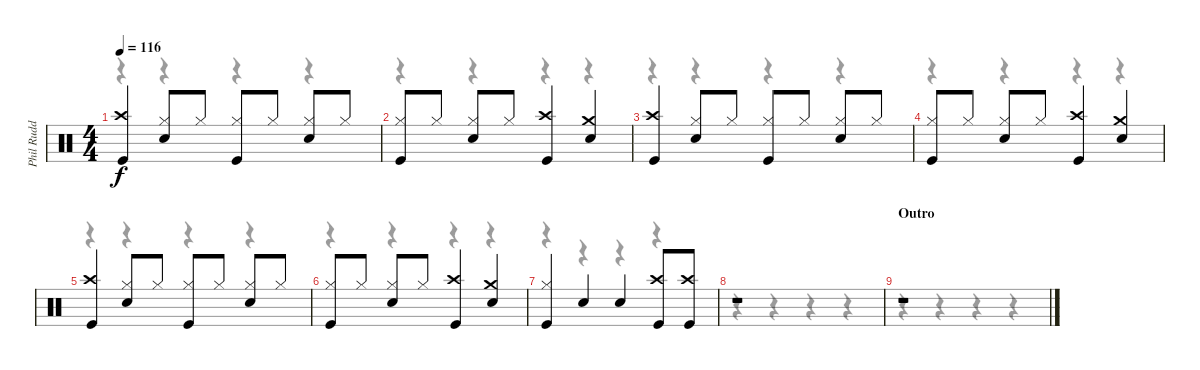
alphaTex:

\track ("Phil Rudd" "Phil Rudd") {instrument percussion}
\staff {score}
\articulation defaults
\voice
\ts (4 4)
\tempo 116
\clef neutral
\ks c
("Crash high (hit)" "Kick (hit)").4{dy f} ("Hi-Hat (closed)" "Snare (hit) 2").8 "Hi-Hat (closed)".8 ("Hi-Hat (closed)" "Kick (hit)").8 "Hi-Hat (closed)".8 ("Hi-Hat (closed)" "Snare (hit) 2").8 "Hi-Hat (closed)".8 |
("Hi-Hat (closed)" "Kick (hit)").8 "Hi-Hat (closed)".8 ("Hi-Hat (closed)" "Snare (hit) 2").8 "Hi-Hat (closed)".8 ("Crash high (hit)" "Kick (hit)").4 ("Crash medium (hit)" "Snare (hit) 2").4 |
("Crash high (hit)" "Kick (hit)").4 ("Hi-Hat (closed)" "Snare (hit) 2").8 "Hi-Hat (closed)".8 ("Hi-Hat (closed)" "Kick (hit)").8 "Hi-Hat (closed)".8 ("Hi-Hat (closed)" "Snare (hit) 2").8 "Hi-Hat (closed)".8 |
("Hi-Hat (closed)" "Kick (hit)").8 "Hi-Hat (closed)".8 ("Hi-Hat (closed)" "Snare (hit) 2").8 "Hi-Hat (closed)".8 ("Crash high (hit)" "Kick (hit)").4 ("Crash medium (hit)" "Snare (hit) 2").4 |
("Crash high (hit)" "Kick (hit)").4 ("Hi-Hat (closed)" "Snare (hit) 2").8 "Hi-Hat (closed)".8 ("Hi-Hat (closed)" "Kick (hit)").8 "Hi-Hat (closed)".8 ("Hi-Hat (closed)" "Snare (hit) 2").8 "Hi-Hat (closed)".8 |
("Hi-Hat (closed)" "Kick (hit)").8 "Hi-Hat (closed)".8 ("Hi-Hat (closed)" "Snare (hit) 2").8 "Hi-Hat (closed)".8 ("Crash high (hit)" "Kick (hit)").4 ("Crash medium (hit)" "Snare (hit) 2").4 |
("Hi-Hat (closed)" "Kick (hit)").4 "Snare (hit) 2".4 "Snare (hit) 2".4 ("Crash high (hit)" "Kick (hit)").8 ("Crash high (hit)" "Kick (hit)").8 |
r.1 |
\section ("" "Outro")
r.1
\voice
\clef neutral
\ottava regular
\simile none
\ks c
r.4{dy f} r.4 r.4 r.4 |
r.4 r.4 r.4 r.4 |
r.4 r.4 r.4 r.4 |
r.4 r.4 r.4 r.4 |
r.4 r.4 r.4 r.4 |
r.4 r.4 r.4 r.4 |
r.4 r.4 r.4 r.4 |
r.4 r.4 r.4 r.4 |
r.4 r.4 r.4 r.4
